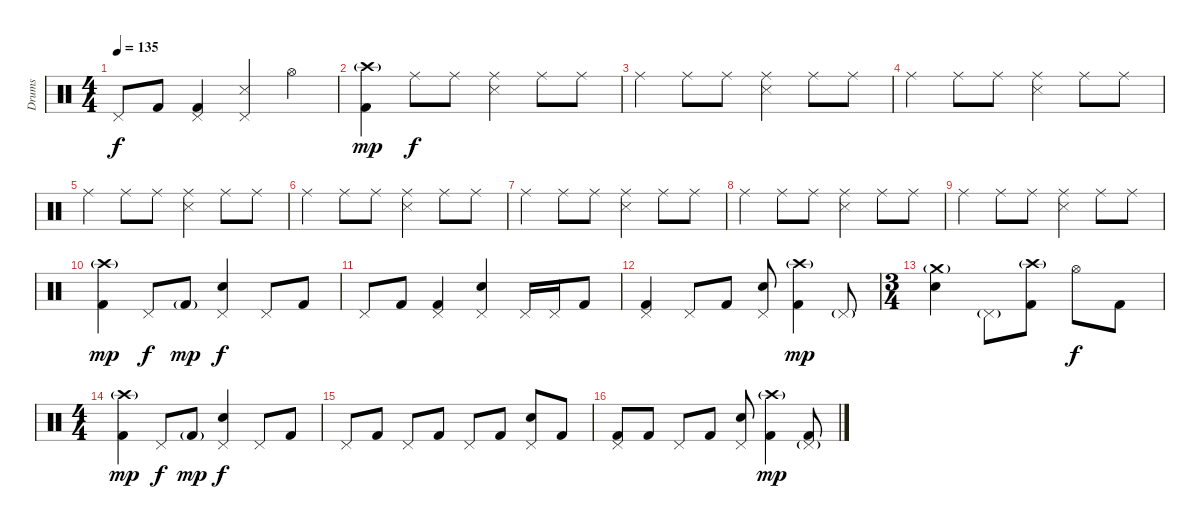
\track ("Drums" "Drums") {instrument percussion}
\staff {score}
\articulation defaults
\ts (4 4)
\tempo 135
\clef neutral
\ks c "Pedal Hi-Hat (hit)".8{dy f} "Kick (hit) 2".8
("Pedal Hi-Hat (hit)" "Kick (hit) 2").4 ("Pedal Hi-Hat (hit)" "Metronome (hit)").4 "Hi-Hat (open)".4 |
("Crash high (hit)"{g} "Kick (hit) 2").4{dy mp} "Ride (middle)".8{dy f} "Ride (middle)".8 ("Ride (middle)" "Metronome (hit)").4 "Ride (middle)".8 "Ride (middle)".8 |
"Ride (middle)".4 "Ride (middle)".8 "Ride (middle)".8 ("Ride (middle)" "Metronome (hit)").4 "Ride (middle)".8 "Ride (middle)".8 |
"Ride (middle)".4 "Ride (middle)".8 "Ride (middle)".8 ("Ride (middle)" "Metronome (hit)").4 "Ride (middle)".8 "Ride (middle)".8 |
"Ride (middle)".4 "Ride (middle)".8 "Ride (middle)".8 ("Ride (middle)" "Metronome (hit)").4 "Ride (middle)".8 "Ride (middle)".8 |
"Ride (middle)".4 "Ride (middle)".8 "Ride (middle)".8 ("Ride (middle)" "Metronome (hit)").4 "Ride (middle)".8 "Ride (middle)".8 |
"Ride (middle)".4 "Ride (middle)".8 "Ride (middle)".8 ("Ride (middle)" "Metronome (hit)").4 "Ride (middle)".8 "Ride (middle)".8 |
"Ride (middle)".4 "Ride (middle)".8 "Ride (middle)".8 ("Ride (middle)" "Metronome (hit)").4 "Ride (middle)".8 "Ride (middle)".8 |
"Ride (middle)".4 "Ride (middle)".8 "Ride (middle)".8 ("Ride (middle)" "Metronome (hit)").4 "Ride (middle)".8 "Ride (middle)".8 |
("Crash high (hit)"{g} "Kick (hit) 2").4{dy mp} "Pedal Hi-Hat (hit)".8{dy f} "Kick (hit) 2"{g}.8{dy mp} ("Pedal Hi-Hat (hit)" "Electric Snare (hit)").4{dy f} "Pedal Hi-Hat (hit)".8 "Kick (hit) 2".8 |
"Pedal Hi-Hat (hit)".8 "Kick (hit) 2".8 ("Pedal Hi-Hat (hit)" "Kick (hit) 2").4 ("Pedal Hi-Hat (hit)" "Electric Snare (hit)").4 "Pedal Hi-Hat (hit)".16 "Pedal Hi-Hat (hit)".16 "Kick (hit) 2".8 |
("Pedal Hi-Hat (hit)" "Kick (hit) 2").4 "Pedal Hi-Hat (hit)".8 "Kick (hit) 2".8 ("Pedal Hi-Hat (hit)" "Electric Snare (hit)").8 ("Crash high (hit)"{g} "Kick (hit) 2").4{dy mp} "Pedal Hi-Hat (hit)"{g}.8 |
\ts (3 4)
("Crash medium (hit)"{g} "Electric Snare (hit)").4 "Pedal Hi-Hat (hit)"{g}.8 ("Crash high (hit)"{g} "Kick (hit) 2").8 "Hi-Hat (open)".8{dy f} "Kick (hit) 2".8 |
\ts (4 4)
("Crash high (hit)"{g} "Kick (hit) 2").4{dy mp} "Pedal Hi-Hat (hit)".8{dy f} "Kick (hit) 2"{g}.8{dy mp} ("Pedal Hi-Hat (hit)" "Electric Snare (hit)").4{dy f} "Pedal Hi-Hat (hit)".8 "Kick (hit) 2".8 |
"Pedal Hi-Hat (hit)".8 "Kick (hit) 2".8 "Pedal Hi-Hat (hit)".8 "Kick (hit) 2".8 "Pedal Hi-Hat (hit)".8 "Kick (hit) 2".8 ("Pedal Hi-Hat (hit)" "Electric Snare (hit)").8 "Kick (hit) 2".8 |
("Pedal Hi-Hat (hit)" "Kick (hit) 2").8 "Kick (hit) 2".8 "Pedal Hi-Hat (hit)".8 "Kick (hit) 2".8 ("Pedal Hi-Hat (hit)" "Electric Snare (hit)").8 ("Crash high (hit)"{g} "Kick (hit) 2").4{dy mp} ("Pedal Hi-Hat (hit)"{g} "Kick (hit) 2").8
